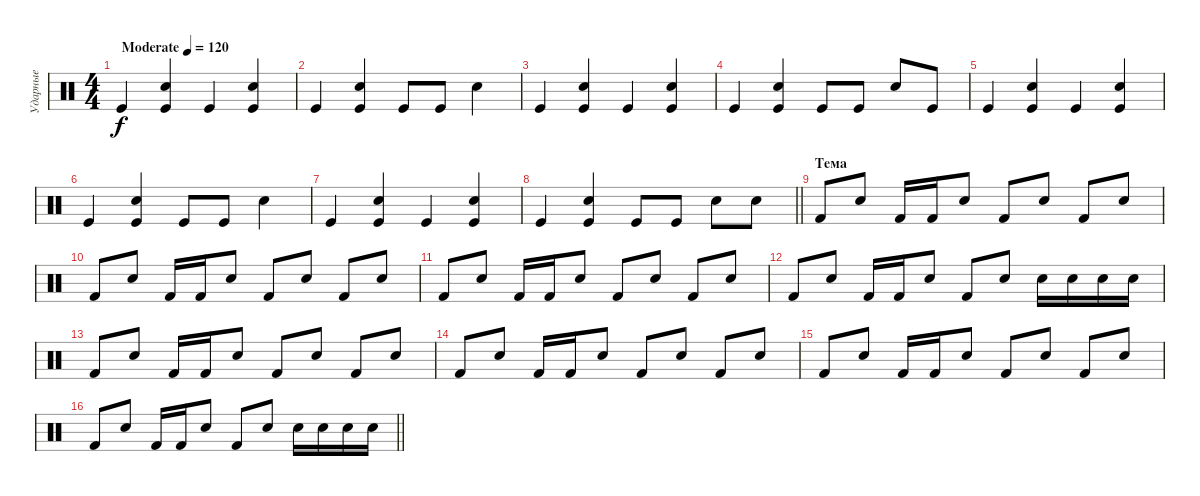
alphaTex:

\track ("Ударные" "Ударные") {instrument percussion}
\staff {score}
\articulation defaults
\ts (4 4)
\tempo (120 "Moderate")
\clef neutral
\ks c "Kick (hit)".4{dy f}
("Kick (hit)" "Snare (hit) 2").4 "Kick (hit)".4 ("Kick (hit)" "Snare (hit) 2").4 |
"Kick (hit)".4 ("Kick (hit)" "Snare (hit) 2").4 "Kick (hit)".8 "Kick (hit)".8 "Snare (hit) 2".4 |
"Kick (hit)".4 ("Kick (hit)" "Snare (hit) 2").4 "Kick (hit)".4 ("Kick (hit)" "Snare (hit) 2").4 |
"Kick (hit)".4 ("Kick (hit)" "Snare (hit) 2").4 "Kick (hit)".8 "Kick (hit)".8 "Snare (hit) 2".8 "Kick (hit)".8 |
"Kick (hit)".4 ("Kick (hit)" "Snare (hit) 2").4 "Kick (hit)".4 ("Kick (hit)" "Snare (hit) 2").4 |
"Kick (hit)".4 ("Kick (hit)" "Snare (hit) 2").4 "Kick (hit)".8 "Kick (hit)".8 "Snare (hit) 2".4 |
"Kick (hit)".4 ("Kick (hit)" "Snare (hit) 2").4 "Kick (hit)".4 ("Kick (hit)" "Snare (hit) 2").4 |
\barLineRight lightlight "Kick (hit)".4
("Kick (hit)" "Snare (hit) 2").4 "Kick (hit)".8 "Kick (hit)".8 "Snare (hit) 2".8 "Snare (hit) 2".8 |
\section ("" "Тема")
"Kick (hit) 2".8 "Electric Snare (hit)".8 "Kick (hit) 2".16 "Kick (hit) 2".16 "Electric Snare (hit)".8 "Kick (hit) 2".8 "Electric Snare (hit)".8 "Kick (hit) 2".8 "Electric Snare (hit)".8 |
"Kick (hit) 2".8 "Electric Snare (hit)".8 "Kick (hit) 2".16 "Kick (hit) 2".16 "Electric Snare (hit)".8 "Kick (hit) 2".8 "Electric Snare (hit)".8 "Kick (hit) 2".8 "Electric Snare (hit)".8 |
"Kick (hit) 2".8 "Electric Snare (hit)".8 "Kick (hit) 2".16 "Kick (hit) 2".16 "Electric Snare (hit)".8 "Kick (hit) 2".8 "Electric Snare (hit)".8 "Kick (hit) 2".8 "Electric Snare (hit)".8 |
"Kick (hit) 2".8 "Electric Snare (hit)".8 "Kick (hit) 2".16 "Kick (hit) 2".16 "Electric Snare (hit)".8 "Kick (hit) 2".8 "Electric Snare (hit)".8 "Electric Snare (hit)".16 "Electric Snare (hit)".16 "Electric Snare (hit)".16 "Electric Snare (hit)".16 |
"Kick (hit) 2".8 "Electric Snare (hit)".8 "Kick (hit) 2".16 "Kick (hit) 2".16 "Electric Snare (hit)".8 "Kick (hit) 2".8 "Electric Snare (hit)".8 "Kick (hit) 2".8 "Electric Snare (hit)".8 |
"Kick (hit) 2".8 "Electric Snare (hit)".8 "Kick (hit) 2".16 "Kick (hit) 2".16 "Electric Snare (hit)".8 "Kick (hit) 2".8 "Electric Snare (hit)".8 "Kick (hit) 2".8 "Electric Snare (hit)".8 |
"Kick (hit) 2".8 "Electric Snare (hit)".8 "Kick (hit) 2".16 "Kick (hit) 2".16 "Electric Snare (hit)".8 "Kick (hit) 2".8 "Electric Snare (hit)".8 "Kick (hit) 2".8 "Electric Snare (hit)".8 |
\barLineRight lightlight "Kick (hit) 2".8 "Electric Snare (hit)".8 "Kick (hit) 2".16 "Kick (hit) 2".16 "Electric Snare (hit)".8 "Kick (hit) 2".8 "Electric Snare (hit)".8 "Electric Snare (hit)".16 "Electric Snare (hit)".16 "Electric Snare (hit)".16 "Electric Snare (hit)".16
